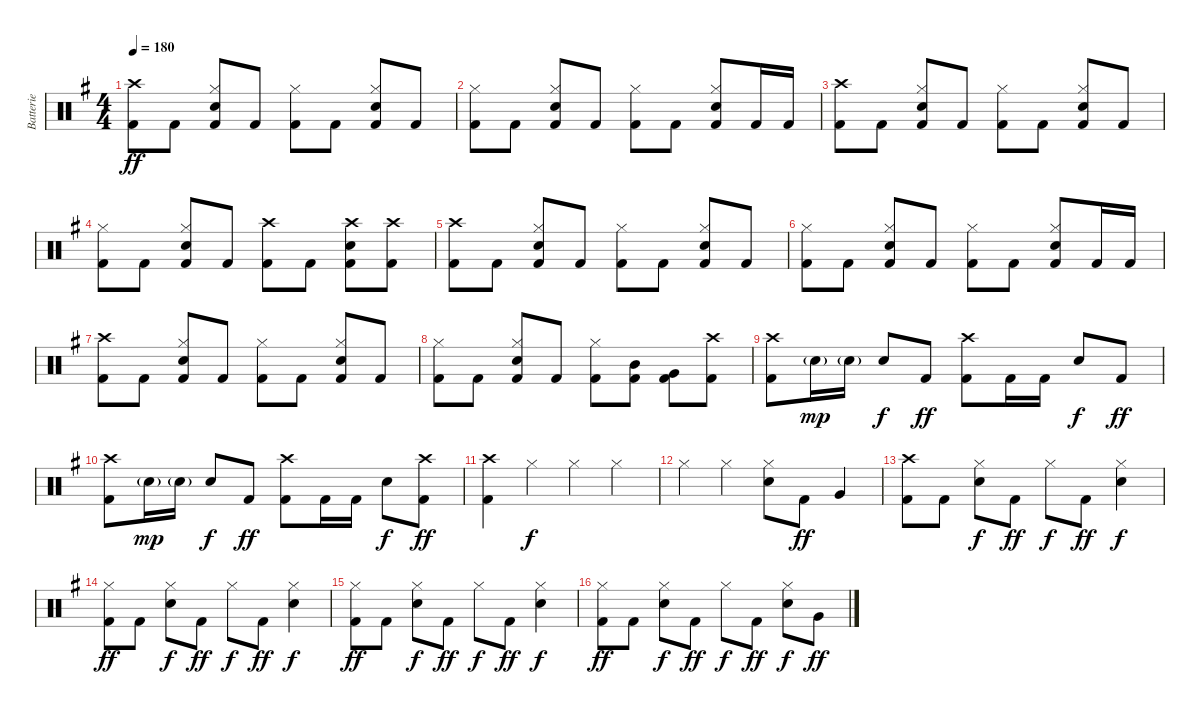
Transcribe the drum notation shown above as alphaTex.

\track ("Batterie" "Batterie") {instrument percussion}
\staff {score}
\articulation defaults
\ts (4 4)
\tempo 180
\clef neutral
\ks g
("Crash high (hit)" "Kick (hit) 2").8{dy ff} "Kick (hit) 2".8 ("Hi-Hat (closed)" "Snare (hit) 2" "Kick (hit) 2").8 "Kick (hit) 2".8 ("Hi-Hat (closed)" "Kick (hit) 2").8 "Kick (hit) 2".8 ("Hi-Hat (closed)" "Snare (hit) 2" "Kick (hit) 2").8 "Kick (hit) 2".8 |
("Hi-Hat (closed)" "Kick (hit) 2").8 "Kick (hit) 2".8 ("Hi-Hat (closed)" "Snare (hit) 2" "Kick (hit) 2").8 "Kick (hit) 2".8 ("Hi-Hat (closed)" "Kick (hit) 2").8 "Kick (hit) 2".8 ("Hi-Hat (closed)" "Snare (hit) 2" "Kick (hit) 2").8 "Kick (hit) 2".16 "Kick (hit) 2".16 |
("Crash high (hit)" "Kick (hit) 2").8 "Kick (hit) 2".8 ("Hi-Hat (closed)" "Snare (hit) 2" "Kick (hit) 2").8 "Kick (hit) 2".8 ("Hi-Hat (closed)" "Kick (hit) 2").8 "Kick (hit) 2".8 ("Hi-Hat (closed)" "Snare (hit) 2" "Kick (hit) 2").8 "Kick (hit) 2".8 |
("Hi-Hat (closed)" "Kick (hit) 2").8 "Kick (hit) 2".8 ("Hi-Hat (closed)" "Snare (hit) 2" "Kick (hit) 2").8 "Kick (hit) 2".8 ("Crash high (hit)" "Kick (hit) 2").8 "Kick (hit) 2".8 ("Crash high (hit)" "Snare (hit) 2" "Kick (hit) 2").8 ("Crash high (hit)" "Kick (hit) 2").8 |
("Crash high (hit)" "Kick (hit) 2").8 "Kick (hit) 2".8 ("Hi-Hat (closed)" "Snare (hit) 2" "Kick (hit) 2").8 "Kick (hit) 2".8 ("Hi-Hat (closed)" "Kick (hit) 2").8 "Kick (hit) 2".8 ("Hi-Hat (closed)" "Snare (hit) 2" "Kick (hit) 2").8 "Kick (hit) 2".8 |
("Hi-Hat (closed)" "Kick (hit) 2").8 "Kick (hit) 2".8 ("Hi-Hat (closed)" "Snare (hit) 2" "Kick (hit) 2").8 "Kick (hit) 2".8 ("Hi-Hat (closed)" "Kick (hit) 2").8 "Kick (hit) 2".8 ("Hi-Hat (closed)" "Snare (hit) 2" "Kick (hit) 2").8 "Kick (hit) 2".16 "Kick (hit) 2".16 |
("Crash high (hit)" "Kick (hit) 2").8 "Kick (hit) 2".8 ("Hi-Hat (closed)" "Snare (hit) 2" "Kick (hit) 2").8 "Kick (hit) 2".8 ("Hi-Hat (closed)" "Kick (hit) 2").8 "Kick (hit) 2".8 ("Hi-Hat (closed)" "Snare (hit) 2" "Kick (hit) 2").8 "Kick (hit) 2".8 |
("Hi-Hat (closed)" "Kick (hit) 2").8 "Kick (hit) 2".8 ("Hi-Hat (closed)" "Snare (hit) 2" "Kick (hit) 2").8 "Kick (hit) 2".8 ("Hi-Hat (closed)" "Kick (hit) 2").8 ("Mid Tom (hit)" "Kick (hit) 2").8 ("Very Low Tom (hit)" "Kick (hit) 2").8 ("Crash high (hit)" "Kick (hit) 2").8 |
("Crash high (hit)" "Kick (hit) 2").8 "Snare (hit) 2"{g}.16{dy mp} "Snare (hit) 2"{g}.16 "Snare (hit) 2".8{dy f} "Kick (hit) 2".8{dy ff} ("Crash high (hit)" "Kick (hit) 2").8 "Kick (hit) 2".16 "Kick (hit) 2".16 "Snare (hit) 2".8{dy f} "Kick (hit) 2".8{dy ff} |
("Crash high (hit)" "Kick (hit) 2").8 "Snare (hit) 2"{g}.16{dy mp} "Snare (hit) 2"{g}.16 "Snare (hit) 2".8{dy f} "Kick (hit) 2".8{dy ff} ("Crash high (hit)" "Kick (hit) 2").8 "Kick (hit) 2".16 "Kick (hit) 2".16 "Snare (hit) 2".8{dy f} ("Crash high (hit)" "Kick (hit) 2").8{dy ff} |
("Crash high (hit)" "Kick (hit) 2").4 "Hi-Hat (closed)".4{dy f} "Hi-Hat (closed)".4 "Hi-Hat (closed)".4 |
"Hi-Hat (closed)".4 "Hi-Hat (closed)".4 ("Hi-Hat (closed)" "Snare (hit) 2").8 "Kick (hit) 2".8{dy ff} "Very Low Tom (hit)".4 |
("Crash high (hit)" "Kick (hit) 2").8 "Kick (hit) 2".8 ("Hi-Hat (closed)" "Snare (hit) 2").8{dy f} "Kick (hit) 2".8{dy ff} "Hi-Hat (closed)".8{dy f} "Kick (hit) 2".8{dy ff} ("Hi-Hat (closed)" "Snare (hit) 2").4{dy f} |
("Hi-Hat (closed)" "Kick (hit) 2").8{dy ff} "Kick (hit) 2".8 ("Hi-Hat (closed)" "Snare (hit) 2").8{dy f} "Kick (hit) 2".8{dy ff} "Hi-Hat (closed)".8{dy f} "Kick (hit) 2".8{dy ff} ("Hi-Hat (closed)" "Snare (hit) 2").4{dy f} |
("Hi-Hat (closed)" "Kick (hit) 2").8{dy ff} "Kick (hit) 2".8 ("Hi-Hat (closed)" "Snare (hit) 2").8{dy f} "Kick (hit) 2".8{dy ff} "Hi-Hat (closed)".8{dy f} "Kick (hit) 2".8{dy ff} ("Hi-Hat (closed)" "Snare (hit) 2").4{dy f} |
("Hi-Hat (closed)" "Kick (hit) 2").8{dy ff} "Kick (hit) 2".8 ("Hi-Hat (closed)" "Snare (hit) 2").8{dy f} "Kick (hit) 2".8{dy ff} "Hi-Hat (closed)".8{dy f} "Kick (hit) 2".8{dy ff} ("Hi-Hat (closed)" "Snare (hit) 2").8{dy f} "Very Low Tom (hit)".8{dy ff}
